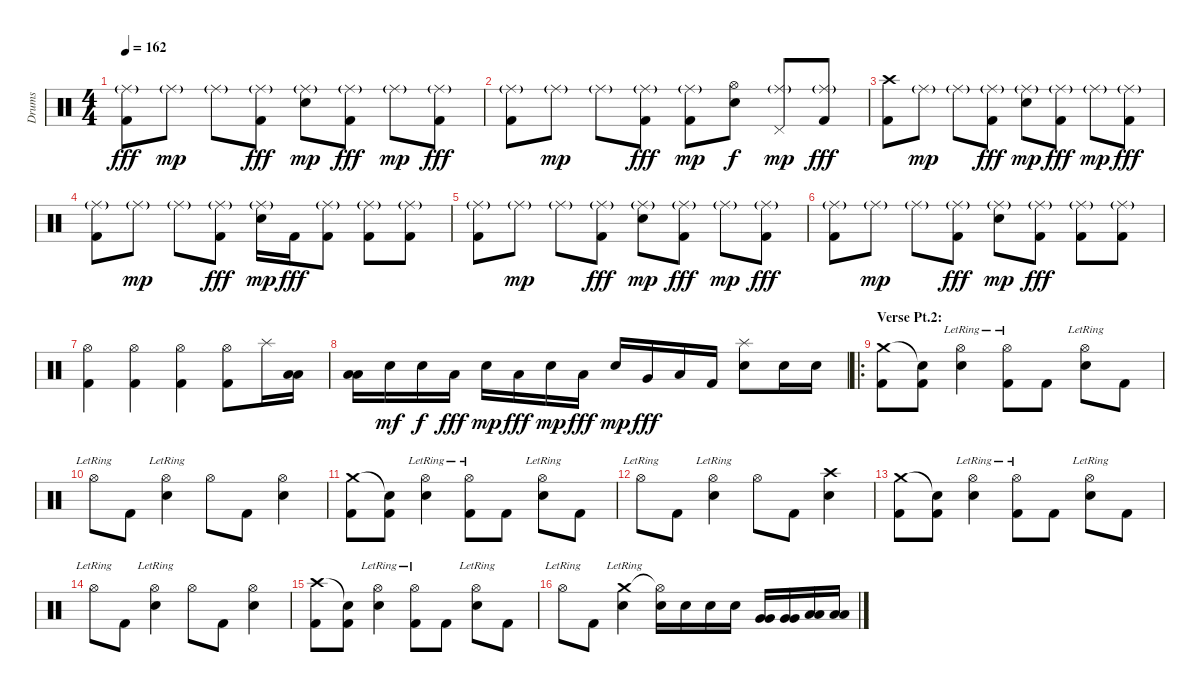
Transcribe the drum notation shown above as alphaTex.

\track ("Drums" "Drums") {instrument percussion}
\staff {score}
\articulation defaults
\ts (4 4)
\tempo 162
\clef neutral
\ks c
("Ride (middle)"{g} "Kick (hit) 2").8{dy fff} "Ride (middle)"{g}.8{dy mp} "Ride (middle)"{g}.8 ("Ride (middle)"{g} "Kick (hit) 2").8{dy fff} ("Ride (middle)"{g} "Snare (hit) 2").8{dy mp} ("Ride (middle)"{g} "Kick (hit) 2").8{dy fff} "Ride (middle)"{g}.8{dy mp} ("Ride (middle)"{g} "Kick (hit) 2").8{dy fff} |
("Ride (middle)"{g} "Kick (hit) 2").8 "Ride (middle)"{g}.8{dy mp} "Ride (middle)"{g}.8 ("Ride (middle)"{g} "Kick (hit) 2").8{dy fff} ("Ride (middle)"{g} "Kick (hit) 2").8{dy mp} ("Hi-Hat (open)" "Snare (hit) 2").8{dy f} ("Pedal Hi-Hat (hit)" "Ride (middle)"{g}).8{dy mp} ("Ride (middle)"{g} "Kick (hit) 2").8{dy fff} |
("Crash high (hit)" "Kick (hit) 2").8 "Ride (middle)"{g}.8{dy mp} "Ride (middle)"{g}.8 ("Ride (middle)"{g} "Kick (hit) 2").8{dy fff} ("Ride (middle)"{g} "Snare (hit) 2").8{dy mp} ("Ride (middle)"{g} "Kick (hit) 2").8{dy fff} "Ride (middle)"{g}.8{dy mp} ("Ride (middle)"{g} "Kick (hit) 2").8{dy fff} |
("Ride (middle)"{g} "Kick (hit) 2").8 "Ride (middle)"{g}.8{dy mp} "Ride (middle)"{g}.8 ("Ride (middle)"{g} "Kick (hit) 2").8{dy fff} ("Ride (middle)"{g} "Snare (hit) 2").16{dy mp} "Kick (hit) 2".16{dy fff} ("Ride (middle)"{g} "Kick (hit) 2").8 ("Ride (middle)"{g} "Kick (hit) 2").8 ("Ride (middle)"{g} "Kick (hit) 2").8 |
("Ride (middle)"{g} "Kick (hit) 2").8 "Ride (middle)"{g}.8{dy mp} "Ride (middle)"{g}.8 ("Ride (middle)"{g} "Kick (hit) 2").8{dy fff} ("Ride (middle)"{g} "Snare (hit) 2").8{dy mp} ("Ride (middle)"{g} "Kick (hit) 2").8{dy fff} "Ride (middle)"{g}.8{dy mp} ("Ride (middle)"{g} "Kick (hit) 2").8{dy fff} |
("Ride (middle)"{g} "Kick (hit) 2").8 "Ride (middle)"{g}.8{dy mp} "Ride (middle)"{g}.8 ("Ride (middle)"{g} "Kick (hit) 2").8{dy fff} ("Ride (middle)"{g} "Snare (hit) 2").8{dy mp} ("Ride (middle)"{g} "Kick (hit) 2").8{dy fff} ("Ride (middle)"{g} "Kick (hit) 2").8 ("Ride (middle)"{g} "Kick (hit) 2").8 |
("Hi-Hat (open)" "Kick (hit) 2").4 ("Hi-Hat (open)" "Kick (hit) 2").4 ("Hi-Hat (open)" "Kick (hit) 2").4 ("Hi-Hat (open)" "Kick (hit) 2").8 "Splash (hit)".16 ("Low Tom (hit)" "Low Floor Tom (hit)").16 |
("Low Floor Tom (hit)" "Low Floor Tom (hit)").16 "Snare (hit) 2".16{dy mf} "Snare (hit) 2".16{dy f} "Low Tom (hit)".16{dy fff} "Snare (hit) 2".16{dy mp} "Low Tom (hit)".16{dy fff} "Snare (hit) 2".16{dy mp} "Low Tom (hit)".16{dy fff} "Snare (hit) 2".16{dy mp} "Very Low Tom (hit)".16{dy fff} "Low Floor Tom (hit)".16 "Kick (hit) 2".16 ("Splash (hit)" "Snare (hit) 2").8 "Snare (hit) 2".16 "Snare (hit) 2".16 |
\ro
\section ("" "Verse Pt.2:")
("Crash medium (hit)" "Kick (hit) 2").8 ("Snare (hit)"{t} "Kick (hit) 2").8 ("Hi-Hat (open)"{lr} "Snare (hit) 2").4 ("Hi-Hat (open)"{lr} "Kick (hit) 2").8 "Kick (hit) 2".8 ("Hi-Hat (open)"{lr} "Snare (hit) 2").8 "Kick (hit) 2".8 |
"Hi-Hat (open)"{lr}.8 "Kick (hit) 2".8 ("Hi-Hat (open)"{lr} "Snare (hit) 2").4 "Hi-Hat (open)".8 "Kick (hit) 2".8 ("Hi-Hat (open)" "Snare (hit) 2").4 |
("Crash medium (hit)" "Kick (hit) 2").8 ("Snare (hit)"{t} "Kick (hit) 2").8 ("Hi-Hat (open)"{lr} "Snare (hit) 2").4 ("Hi-Hat (open)"{lr} "Kick (hit) 2").8 "Kick (hit) 2".8 ("Hi-Hat (open)"{lr} "Snare (hit) 2").8 "Kick (hit) 2".8 |
"Hi-Hat (open)"{lr}.8 "Kick (hit) 2".8 ("Hi-Hat (open)"{lr} "Snare (hit) 2").4 "Hi-Hat (open)".8 "Kick (hit) 2".8 ("Crash high (hit)" "Snare (hit) 2").4 |
("Crash medium (hit)" "Kick (hit) 2").8 ("Snare (hit)"{t} "Kick (hit) 2").8 ("Hi-Hat (open)"{lr} "Snare (hit) 2").4 ("Hi-Hat (open)"{lr} "Kick (hit) 2").8 "Kick (hit) 2".8 ("Hi-Hat (open)"{lr} "Snare (hit) 2").8 "Kick (hit) 2".8 |
"Hi-Hat (open)"{lr}.8 "Kick (hit) 2".8 ("Hi-Hat (open)"{lr} "Snare (hit) 2").4 "Hi-Hat (open)".8 "Kick (hit) 2".8 ("Hi-Hat (open)" "Snare (hit) 2").4 |
("Crash high (hit)" "Kick (hit) 2").8 ("Snare (hit)"{t} "Kick (hit) 2").8 ("Hi-Hat (open)"{lr} "Snare (hit) 2").4 ("Hi-Hat (open)"{lr} "Kick (hit) 2").8 "Kick (hit) 2".8 ("Hi-Hat (open)"{lr} "Snare (hit) 2").8 "Kick (hit) 2".8 |
"Hi-Hat (open)"{lr}.8 "Kick (hit) 2".8 ("Crash medium (hit)"{lr} "Snare (hit) 2").4 ("Hi-Hat (open)"{t} "Snare (hit) 2").16 "Snare (hit) 2".16 "Snare (hit) 2".16 "Snare (hit) 2".16 ("Very Low Tom (hit)" "Very Low Tom (hit)").16 ("Very Low Tom (hit)" "Very Low Tom (hit)").16 ("Low Floor Tom (hit)" "Low Floor Tom (hit)").16 ("Low Floor Tom (hit)" "Low Floor Tom (hit)").16
